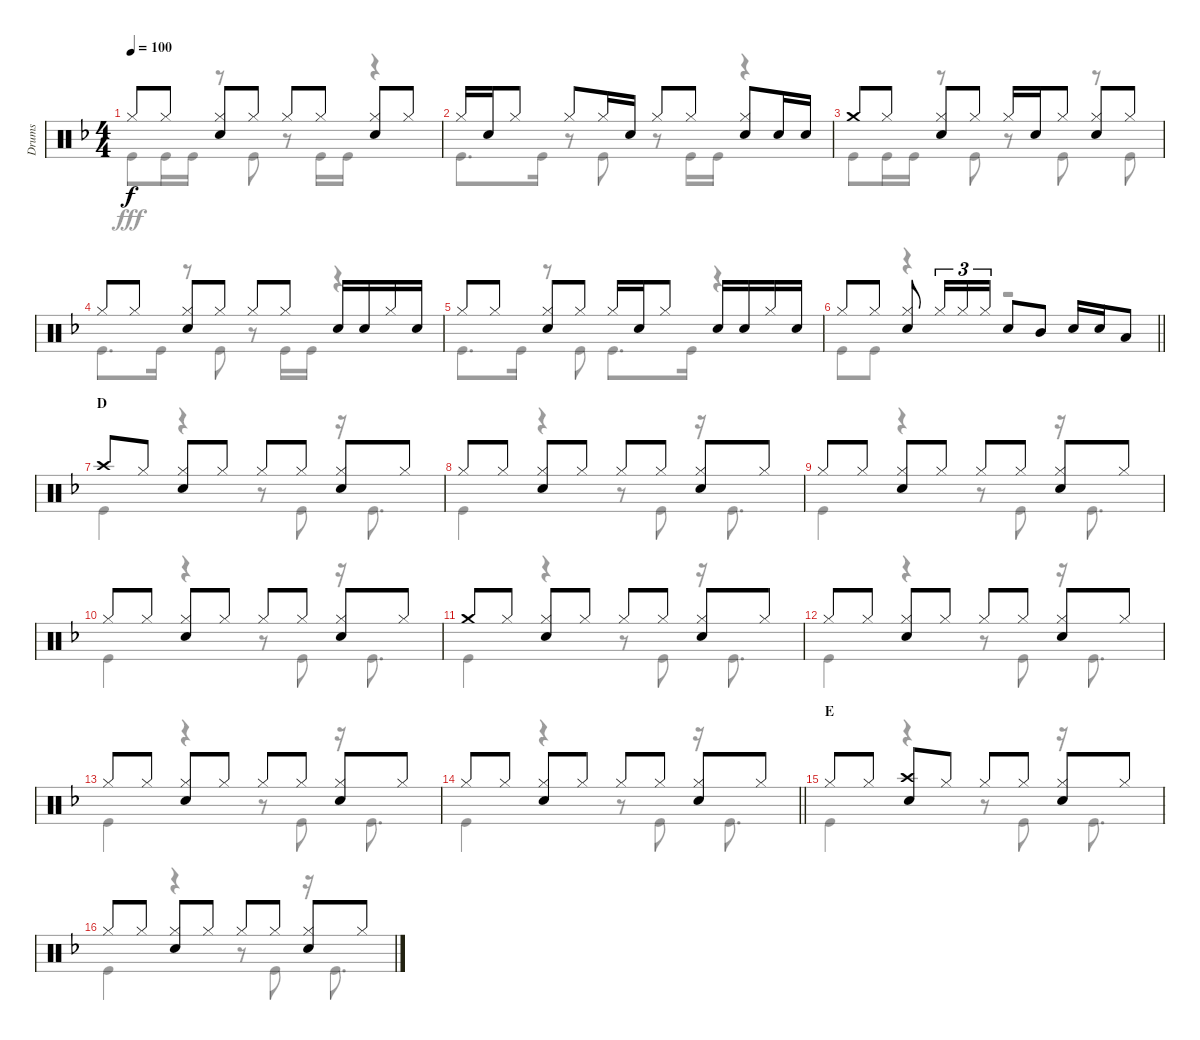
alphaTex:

\track ("Drums" "Drums") {instrument percussion}
\staff {score}
\articulation defaults
\voice
\ts (4 4)
\tempo 100
\clef neutral
\ks f "Hi-Hat (closed)".8{dy f} "Hi-Hat (closed)".8
("Hi-Hat (closed)" "Snare (hit) 2").8 "Hi-Hat (closed)".8 "Hi-Hat (closed)".8 "Hi-Hat (closed)".8 ("Hi-Hat (closed)" "Snare (hit) 2").8 "Hi-Hat (closed)".8 |
"Hi-Hat (closed)".16 "Snare (hit) 2".16 "Hi-Hat (closed)".8 "Hi-Hat (closed)".8 "Hi-Hat (closed)".16 "Snare (hit) 2".16 "Hi-Hat (closed)".8 "Hi-Hat (closed)".8 ("Hi-Hat (closed)" "Snare (hit) 2").8 "Snare (hit) 2".16 "Snare (hit) 2".16 |
"Crash medium (hit)".8 "Hi-Hat (closed)".8 ("Hi-Hat (closed)" "Snare (hit) 2").8 "Hi-Hat (closed)".8 "Hi-Hat (closed)".16 "Snare (hit) 2".16 "Hi-Hat (closed)".8 ("Hi-Hat (closed)" "Snare (hit) 2").8 "Hi-Hat (closed)".8 |
"Hi-Hat (closed)".8 "Hi-Hat (closed)".8 ("Hi-Hat (closed)" "Snare (hit) 2").8 "Hi-Hat (closed)".8 "Hi-Hat (closed)".8 "Hi-Hat (closed)".8 "Snare (hit) 2".16 "Snare (hit) 2".16 "Hi-Hat (closed)".16 "Snare (hit) 2".16 |
"Hi-Hat (closed)".8 "Hi-Hat (closed)".8 ("Hi-Hat (closed)" "Snare (hit) 2").8 "Hi-Hat (closed)".8 "Hi-Hat (closed)".16 "Snare (hit) 2".16 "Hi-Hat (closed)".8 "Snare (hit) 2".16 "Snare (hit) 2".16 "Hi-Hat (closed)".16 "Snare (hit) 2".16 |
\barLineRight lightlight "Hi-Hat (closed)".8 "Hi-Hat (closed)".8
("Hi-Hat (closed)" "Snare (hit) 2").8 "Hi-Hat (closed)".16{tu (3 2)} "Hi-Hat (closed)".16{tu (3 2)} "Hi-Hat (closed)".16{tu (3 2)} "Snare (hit) 2".8 "Mid Tom (hit)".8 "Snare (hit) 2".16 "Snare (hit) 2".16 "Low Tom (hit)".8 |
\section ("" "D")
"Crash high (hit)".8 "Hi-Hat (closed)".8 ("Hi-Hat (closed)" "Snare (hit) 2").8 "Hi-Hat (closed)".8 "Hi-Hat (closed)".8 "Hi-Hat (closed)".8 ("Hi-Hat (closed)" "Snare (hit) 2").8 "Hi-Hat (closed)".8 |
"Hi-Hat (closed)".8 "Hi-Hat (closed)".8 ("Hi-Hat (closed)" "Snare (hit) 2").8 "Hi-Hat (closed)".8 "Hi-Hat (closed)".8 "Hi-Hat (closed)".8 ("Hi-Hat (closed)" "Snare (hit) 2").8 "Hi-Hat (closed)".8 |
"Hi-Hat (closed)".8 "Hi-Hat (closed)".8 ("Hi-Hat (closed)" "Snare (hit) 2").8 "Hi-Hat (closed)".8 "Hi-Hat (closed)".8 "Hi-Hat (closed)".8 ("Hi-Hat (closed)" "Snare (hit) 2").8 "Hi-Hat (closed)".8 |
"Hi-Hat (closed)".8 "Hi-Hat (closed)".8 ("Hi-Hat (closed)" "Snare (hit) 2").8 "Hi-Hat (closed)".8 "Hi-Hat (closed)".8 "Hi-Hat (closed)".8 ("Hi-Hat (closed)" "Snare (hit) 2").8 "Hi-Hat (closed)".8 |
"Crash medium (hit)".8 "Hi-Hat (closed)".8 ("Hi-Hat (closed)" "Snare (hit) 2").8 "Hi-Hat (closed)".8 "Hi-Hat (closed)".8 "Hi-Hat (closed)".8 ("Hi-Hat (closed)" "Snare (hit) 2").8 "Hi-Hat (closed)".8 |
"Hi-Hat (closed)".8 "Hi-Hat (closed)".8 ("Hi-Hat (closed)" "Snare (hit) 2").8 "Hi-Hat (closed)".8 "Hi-Hat (closed)".8 "Hi-Hat (closed)".8 ("Hi-Hat (closed)" "Snare (hit) 2").8 "Hi-Hat (closed)".8 |
"Hi-Hat (closed)".8 "Hi-Hat (closed)".8 ("Hi-Hat (closed)" "Snare (hit) 2").8 "Hi-Hat (closed)".8 "Hi-Hat (closed)".8 "Hi-Hat (closed)".8 ("Hi-Hat (closed)" "Snare (hit) 2").8 "Hi-Hat (closed)".8 |
\barLineRight lightlight "Hi-Hat (closed)".8 "Hi-Hat (closed)".8
("Hi-Hat (closed)" "Snare (hit) 2").8 "Hi-Hat (closed)".8 "Hi-Hat (closed)".8 "Hi-Hat (closed)".8 ("Hi-Hat (closed)" "Snare (hit) 2").8 "Hi-Hat (closed)".8 |
\section ("" "E")
"Hi-Hat (closed)".8 "Hi-Hat (closed)".8 ("Crash high (hit)" "Snare (hit) 2").8 "Hi-Hat (closed)".8 "Hi-Hat (closed)".8 "Hi-Hat (closed)".8 ("Hi-Hat (closed)" "Snare (hit) 2").8 "Hi-Hat (closed)".8 |
"Hi-Hat (closed)".8 "Hi-Hat (closed)".8 ("Hi-Hat (closed)" "Snare (hit) 2").8 "Hi-Hat (closed)".8 "Hi-Hat (closed)".8 "Hi-Hat (closed)".8 ("Hi-Hat (closed)" "Snare (hit) 2").8 "Hi-Hat (closed)".8
\voice
\clef neutral
\ottava regular
\simile none
\ks f "Kick (hit)".8{dy fff} "Kick (hit)".16 "Kick (hit)".16
r.8 "Kick (hit)".8 r.8 "Kick (hit)".16 "Kick (hit)".16 r.4 |
"Kick (hit)".8{d} "Kick (hit)".16 r.8 "Kick (hit)".8 r.8 "Kick (hit)".16 "Kick (hit)".16 r.4 |
"Kick (hit)".8 "Kick (hit)".16 "Kick (hit)".16 r.8 "Kick (hit)".8 r.8 "Kick (hit)".8 r.8 "Kick (hit)".8 |
"Kick (hit)".8{d} "Kick (hit)".16 r.8 "Kick (hit)".8 r.8 "Kick (hit)".16 "Kick (hit)".16 r.4 |
"Kick (hit)".8{d} "Kick (hit)".16 r.8 "Kick (hit)".8 "Kick (hit)".8{d} "Kick (hit)".16 r.4 |
\barLineRight lightlight "Kick (hit)".8 "Kick (hit)".8
r.4 r.2 |
"Kick (hit)".4 r.4 r.8 "Kick (hit)".8 r.16 "Kick (hit)".8{d} |
"Kick (hit)".4 r.4 r.8 "Kick (hit)".8 r.16 "Kick (hit)".8{d} |
"Kick (hit)".4 r.4 r.8 "Kick (hit)".8 r.16 "Kick (hit)".8{d} |
"Kick (hit)".4 r.4 r.8 "Kick (hit)".8 r.16 "Kick (hit)".8{d} |
"Kick (hit)".4 r.4 r.8 "Kick (hit)".8 r.16 "Kick (hit)".8{d} |
"Kick (hit)".4 r.4 r.8 "Kick (hit)".8 r.16 "Kick (hit)".8{d} |
"Kick (hit)".4 r.4 r.8 "Kick (hit)".8 r.16 "Kick (hit)".8{d} |
\barLineRight lightlight "Kick (hit)".4
r.4 r.8 "Kick (hit)".8 r.16 "Kick (hit)".8{d} |
"Kick (hit)".4 r.4 r.8 "Kick (hit)".8 r.16 "Kick (hit)".8{d} |
"Kick (hit)".4 r.4 r.8 "Kick (hit)".8 r.16 "Kick (hit)".8{d}
